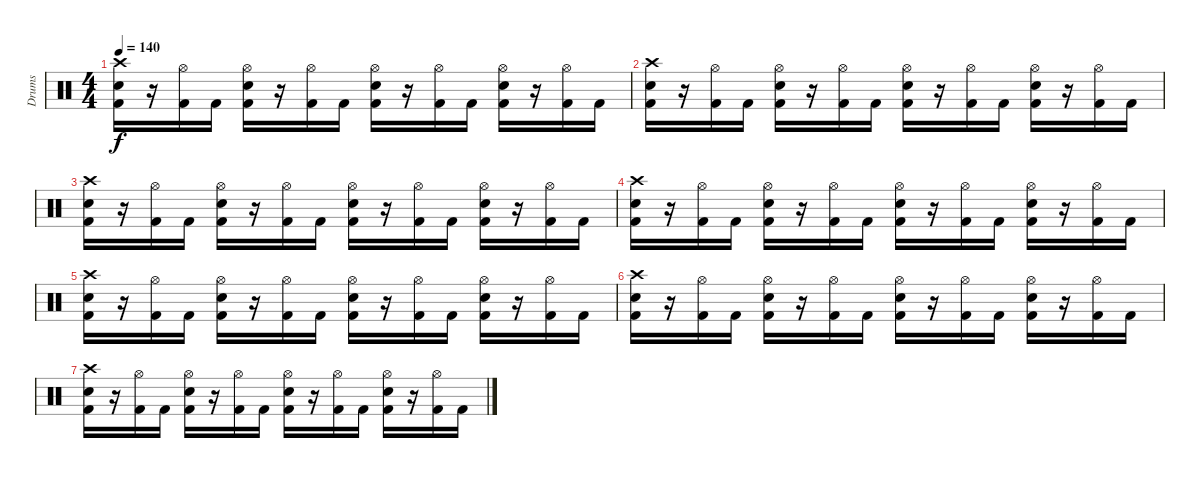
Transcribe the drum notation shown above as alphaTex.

\track ("Drums" "Drums") {instrument percussion}
\staff {score}
\articulation defaults
\ts (4 4)
\tempo 140
\clef neutral
\ks c
("Crash high (hit)" "Electric Snare (hit)" "Kick (hit) 2").16{dy f} r.16 ("Hi-Hat (open)" "Kick (hit) 2").16 "Kick (hit) 2".16 ("Hi-Hat (open)" "Electric Snare (hit)" "Kick (hit) 2").16 r.16 ("Hi-Hat (open)" "Kick (hit) 2").16 "Kick (hit) 2".16 ("Hi-Hat (open)" "Electric Snare (hit)" "Kick (hit) 2").16 r.16 ("Hi-Hat (open)" "Kick (hit) 2").16 "Kick (hit) 2".16 ("Hi-Hat (open)" "Electric Snare (hit)" "Kick (hit) 2").16 r.16 ("Hi-Hat (open)" "Kick (hit) 2").16 "Kick (hit) 2".16 |
("Crash high (hit)" "Electric Snare (hit)" "Kick (hit) 2").16 r.16 ("Hi-Hat (open)" "Kick (hit) 2").16 "Kick (hit) 2".16 ("Hi-Hat (open)" "Electric Snare (hit)" "Kick (hit) 2").16 r.16 ("Hi-Hat (open)" "Kick (hit) 2").16 "Kick (hit) 2".16 ("Hi-Hat (open)" "Electric Snare (hit)" "Kick (hit) 2").16 r.16 ("Hi-Hat (open)" "Kick (hit) 2").16 "Kick (hit) 2".16 ("Hi-Hat (open)" "Electric Snare (hit)" "Kick (hit) 2").16 r.16 ("Hi-Hat (open)" "Kick (hit) 2").16 "Kick (hit) 2".16 |
("Crash high (hit)" "Electric Snare (hit)" "Kick (hit) 2").16 r.16 ("Hi-Hat (open)" "Kick (hit) 2").16 "Kick (hit) 2".16 ("Hi-Hat (open)" "Electric Snare (hit)" "Kick (hit) 2").16 r.16 ("Hi-Hat (open)" "Kick (hit) 2").16 "Kick (hit) 2".16 ("Hi-Hat (open)" "Electric Snare (hit)" "Kick (hit) 2").16 r.16 ("Hi-Hat (open)" "Kick (hit) 2").16 "Kick (hit) 2".16 ("Hi-Hat (open)" "Electric Snare (hit)" "Kick (hit) 2").16 r.16 ("Hi-Hat (open)" "Kick (hit) 2").16 "Kick (hit) 2".16 |
("Crash high (hit)" "Electric Snare (hit)" "Kick (hit) 2").16 r.16 ("Hi-Hat (open)" "Kick (hit) 2").16 "Kick (hit) 2".16 ("Hi-Hat (open)" "Electric Snare (hit)" "Kick (hit) 2").16 r.16 ("Hi-Hat (open)" "Kick (hit) 2").16 "Kick (hit) 2".16 ("Hi-Hat (open)" "Electric Snare (hit)" "Kick (hit) 2").16 r.16 ("Hi-Hat (open)" "Kick (hit) 2").16 "Kick (hit) 2".16 ("Hi-Hat (open)" "Electric Snare (hit)" "Kick (hit) 2").16 r.16 ("Hi-Hat (open)" "Kick (hit) 2").16 "Kick (hit) 2".16 |
("Crash high (hit)" "Electric Snare (hit)" "Kick (hit) 2").16 r.16 ("Hi-Hat (open)" "Kick (hit) 2").16 "Kick (hit) 2".16 ("Hi-Hat (open)" "Electric Snare (hit)" "Kick (hit) 2").16 r.16 ("Hi-Hat (open)" "Kick (hit) 2").16 "Kick (hit) 2".16 ("Hi-Hat (open)" "Electric Snare (hit)" "Kick (hit) 2").16 r.16 ("Hi-Hat (open)" "Kick (hit) 2").16 "Kick (hit) 2".16 ("Hi-Hat (open)" "Electric Snare (hit)" "Kick (hit) 2").16 r.16 ("Hi-Hat (open)" "Kick (hit) 2").16 "Kick (hit) 2".16 |
("Crash high (hit)" "Electric Snare (hit)" "Kick (hit) 2").16 r.16 ("Hi-Hat (open)" "Kick (hit) 2").16 "Kick (hit) 2".16 ("Hi-Hat (open)" "Electric Snare (hit)" "Kick (hit) 2").16 r.16 ("Hi-Hat (open)" "Kick (hit) 2").16 "Kick (hit) 2".16 ("Hi-Hat (open)" "Electric Snare (hit)" "Kick (hit) 2").16 r.16 ("Hi-Hat (open)" "Kick (hit) 2").16 "Kick (hit) 2".16 ("Hi-Hat (open)" "Electric Snare (hit)" "Kick (hit) 2").16 r.16 ("Hi-Hat (open)" "Kick (hit) 2").16 "Kick (hit) 2".16 |
("Crash high (hit)" "Electric Snare (hit)" "Kick (hit) 2").16 r.16 ("Hi-Hat (open)" "Kick (hit) 2").16 "Kick (hit) 2".16 ("Hi-Hat (open)" "Electric Snare (hit)" "Kick (hit) 2").16 r.16 ("Hi-Hat (open)" "Kick (hit) 2").16 "Kick (hit) 2".16 ("Hi-Hat (open)" "Electric Snare (hit)" "Kick (hit) 2").16 r.16 ("Hi-Hat (open)" "Kick (hit) 2").16 "Kick (hit) 2".16 ("Hi-Hat (open)" "Electric Snare (hit)" "Kick (hit) 2").16 r.16 ("Hi-Hat (open)" "Kick (hit) 2").16 "Kick (hit) 2".16
